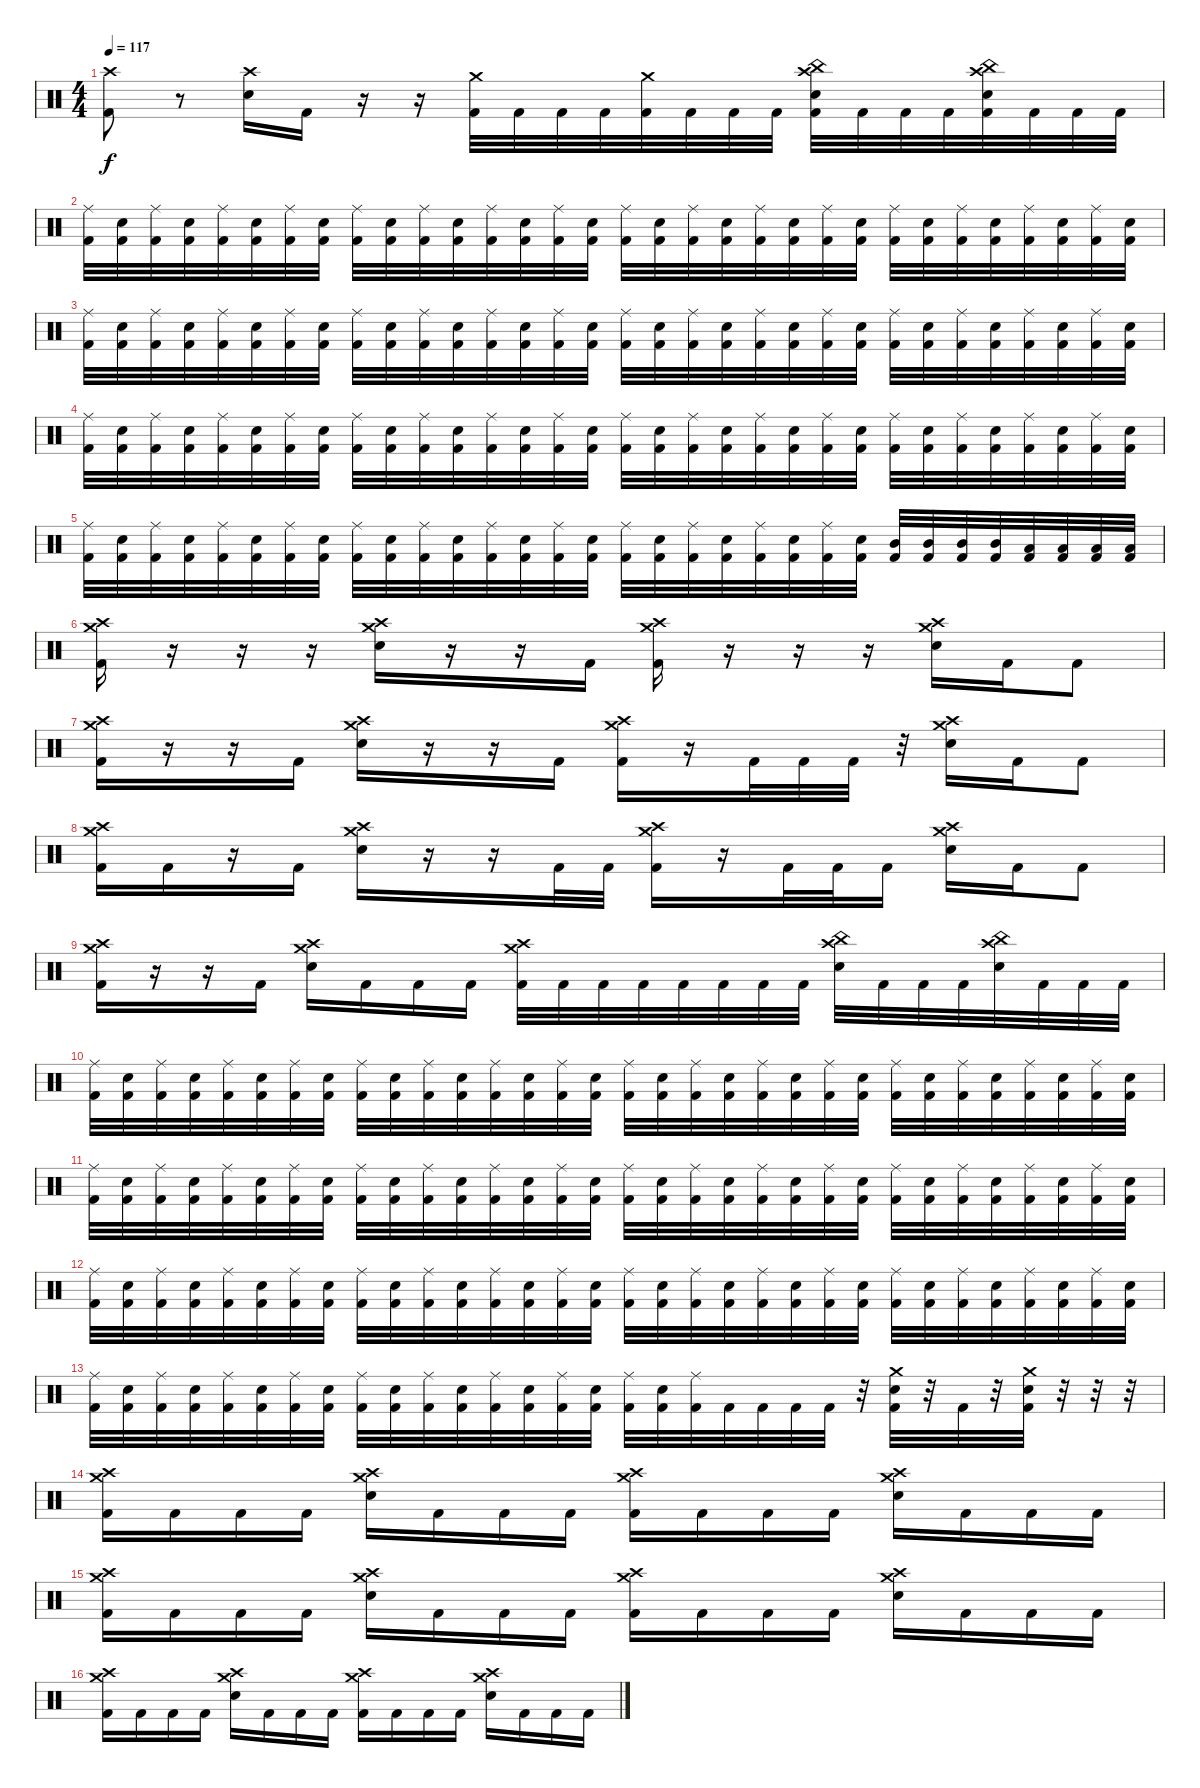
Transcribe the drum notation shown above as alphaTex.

\track "" {instrument percussion}
\staff {score}
\articulation defaults
\ts (4 4)
\tempo 117
\clef neutral
\ks c
("Kick (hit) 2" "Crash high (hit)").8{dy f} r.8 ("Electric Snare (hit)" "Crash high (hit)").16 "Kick (hit) 2".16 r.16 r.16 ("Kick (hit) 2" "Crash medium (hit)").32 "Kick (hit) 2".32 "Kick (hit) 2".32 "Kick (hit) 2".32 ("Kick (hit) 2" "Crash medium (hit)").32 "Kick (hit) 2".32 "Kick (hit) 2".32 "Kick (hit) 2".32 ("Kick (hit) 2" "Electric Snare (hit)" "Crash high (hit)" "China (hit)").32 "Kick (hit) 2".32 "Kick (hit) 2".32 "Kick (hit) 2".32 ("Kick (hit) 2" "Electric Snare (hit)" "Crash high (hit)" "China (hit)").32 "Kick (hit) 2".32 "Kick (hit) 2".32 "Kick (hit) 2".32 |
("Ride (middle)" "Kick (hit) 2").32 ("Electric Snare (hit)" "Kick (hit) 2").32 ("Ride (middle)" "Kick (hit) 2").32 ("Electric Snare (hit)" "Kick (hit) 2").32 ("Ride (middle)" "Kick (hit) 2").32 ("Electric Snare (hit)" "Kick (hit) 2").32 ("Ride (middle)" "Kick (hit) 2").32 ("Electric Snare (hit)" "Kick (hit) 2").32 ("Ride (middle)" "Kick (hit) 2").32 ("Electric Snare (hit)" "Kick (hit) 2").32 ("Ride (middle)" "Kick (hit) 2").32 ("Electric Snare (hit)" "Kick (hit) 2").32 ("Ride (middle)" "Kick (hit) 2").32 ("Electric Snare (hit)" "Kick (hit) 2").32 ("Ride (middle)" "Kick (hit) 2").32 ("Electric Snare (hit)" "Kick (hit) 2").32 ("Ride (middle)" "Kick (hit) 2").32 ("Electric Snare (hit)" "Kick (hit) 2").32 ("Ride (middle)" "Kick (hit) 2").32 ("Electric Snare (hit)" "Kick (hit) 2").32 ("Ride (middle)" "Kick (hit) 2").32 ("Electric Snare (hit)" "Kick (hit) 2").32 ("Ride (middle)" "Kick (hit) 2").32 ("Electric Snare (hit)" "Kick (hit) 2").32 ("Ride (middle)" "Kick (hit) 2").32 ("Electric Snare (hit)" "Kick (hit) 2").32 ("Ride (middle)" "Kick (hit) 2").32 ("Electric Snare (hit)" "Kick (hit) 2").32 ("Ride (middle)" "Kick (hit) 2").32 ("Electric Snare (hit)" "Kick (hit) 2").32 ("Ride (middle)" "Kick (hit) 2").32 ("Electric Snare (hit)" "Kick (hit) 2").32 |
("Ride (middle)" "Kick (hit) 2").32 ("Electric Snare (hit)" "Kick (hit) 2").32 ("Ride (middle)" "Kick (hit) 2").32 ("Electric Snare (hit)" "Kick (hit) 2").32 ("Ride (middle)" "Kick (hit) 2").32 ("Electric Snare (hit)" "Kick (hit) 2").32 ("Ride (middle)" "Kick (hit) 2").32 ("Electric Snare (hit)" "Kick (hit) 2").32 ("Ride (middle)" "Kick (hit) 2").32 ("Electric Snare (hit)" "Kick (hit) 2").32 ("Ride (middle)" "Kick (hit) 2").32 ("Electric Snare (hit)" "Kick (hit) 2").32 ("Ride (middle)" "Kick (hit) 2").32 ("Electric Snare (hit)" "Kick (hit) 2").32 ("Ride (middle)" "Kick (hit) 2").32 ("Electric Snare (hit)" "Kick (hit) 2").32 ("Ride (middle)" "Kick (hit) 2").32 ("Electric Snare (hit)" "Kick (hit) 2").32 ("Ride (middle)" "Kick (hit) 2").32 ("Electric Snare (hit)" "Kick (hit) 2").32 ("Ride (middle)" "Kick (hit) 2").32 ("Electric Snare (hit)" "Kick (hit) 2").32 ("Ride (middle)" "Kick (hit) 2").32 ("Electric Snare (hit)" "Kick (hit) 2").32 ("Ride (middle)" "Kick (hit) 2").32 ("Electric Snare (hit)" "Kick (hit) 2").32 ("Ride (middle)" "Kick (hit) 2").32 ("Electric Snare (hit)" "Kick (hit) 2").32 ("Ride (middle)" "Kick (hit) 2").32 ("Electric Snare (hit)" "Kick (hit) 2").32 ("Ride (middle)" "Kick (hit) 2").32 ("Electric Snare (hit)" "Kick (hit) 2").32 |
("Ride (middle)" "Kick (hit) 2").32 ("Electric Snare (hit)" "Kick (hit) 2").32 ("Ride (middle)" "Kick (hit) 2").32 ("Electric Snare (hit)" "Kick (hit) 2").32 ("Ride (middle)" "Kick (hit) 2").32 ("Electric Snare (hit)" "Kick (hit) 2").32 ("Ride (middle)" "Kick (hit) 2").32 ("Electric Snare (hit)" "Kick (hit) 2").32 ("Ride (middle)" "Kick (hit) 2").32 ("Electric Snare (hit)" "Kick (hit) 2").32 ("Ride (middle)" "Kick (hit) 2").32 ("Electric Snare (hit)" "Kick (hit) 2").32 ("Ride (middle)" "Kick (hit) 2").32 ("Electric Snare (hit)" "Kick (hit) 2").32 ("Ride (middle)" "Kick (hit) 2").32 ("Electric Snare (hit)" "Kick (hit) 2").32 ("Ride (middle)" "Kick (hit) 2").32 ("Electric Snare (hit)" "Kick (hit) 2").32 ("Ride (middle)" "Kick (hit) 2").32 ("Electric Snare (hit)" "Kick (hit) 2").32 ("Ride (middle)" "Kick (hit) 2").32 ("Electric Snare (hit)" "Kick (hit) 2").32 ("Ride (middle)" "Kick (hit) 2").32 ("Electric Snare (hit)" "Kick (hit) 2").32 ("Ride (middle)" "Kick (hit) 2").32 ("Electric Snare (hit)" "Kick (hit) 2").32 ("Ride (middle)" "Kick (hit) 2").32 ("Electric Snare (hit)" "Kick (hit) 2").32 ("Ride (middle)" "Kick (hit) 2").32 ("Electric Snare (hit)" "Kick (hit) 2").32 ("Ride (middle)" "Kick (hit) 2").32 ("Electric Snare (hit)" "Kick (hit) 2").32 |
("Ride (middle)" "Kick (hit) 2").32 ("Electric Snare (hit)" "Kick (hit) 2").32 ("Ride (middle)" "Kick (hit) 2").32 ("Electric Snare (hit)" "Kick (hit) 2").32 ("Ride (middle)" "Kick (hit) 2").32 ("Electric Snare (hit)" "Kick (hit) 2").32 ("Ride (middle)" "Kick (hit) 2").32 ("Electric Snare (hit)" "Kick (hit) 2").32 ("Ride (middle)" "Kick (hit) 2").32 ("Electric Snare (hit)" "Kick (hit) 2").32 ("Ride (middle)" "Kick (hit) 2").32 ("Electric Snare (hit)" "Kick (hit) 2").32 ("Ride (middle)" "Kick (hit) 2").32 ("Electric Snare (hit)" "Kick (hit) 2").32 ("Ride (middle)" "Kick (hit) 2").32 ("Electric Snare (hit)" "Kick (hit) 2").32 ("Ride (middle)" "Kick (hit) 2").32 ("Electric Snare (hit)" "Kick (hit) 2").32 ("Ride (middle)" "Kick (hit) 2").32 ("Electric Snare (hit)" "Kick (hit) 2").32 ("Ride (middle)" "Kick (hit) 2").32 ("Electric Snare (hit)" "Kick (hit) 2").32 ("Ride (middle)" "Kick (hit) 2").32 ("Electric Snare (hit)" "Kick (hit) 2").32 ("Mid Tom (hit)" "Kick (hit) 2").32 ("Mid Tom (hit)" "Kick (hit) 2").32 ("Mid Tom (hit)" "Kick (hit) 2").32 ("Mid Tom (hit)" "Kick (hit) 2").32 ("Low Tom (hit)" "Kick (hit) 2").32 ("Low Tom (hit)" "Kick (hit) 2").32 ("Low Tom (hit)" "Kick (hit) 2").32 ("Low Tom (hit)" "Kick (hit) 2").32 |
("Kick (hit) 2" "Crash high (hit)" "Crash medium (hit)").16 r.16 r.16 r.16 ("Electric Snare (hit)" "Crash high (hit)" "Crash medium (hit)").16 r.16 r.16 "Kick (hit) 2".16 ("Kick (hit) 2" "Crash high (hit)" "Crash medium (hit)").16 r.16 r.16 r.16 ("Electric Snare (hit)" "Crash high (hit)" "Crash medium (hit)").16 "Kick (hit) 2".16 "Kick (hit) 2".8 |
("Kick (hit) 2" "Crash high (hit)" "Crash medium (hit)").16 r.16 r.16 "Kick (hit) 2".16 ("Electric Snare (hit)" "Crash high (hit)" "Crash medium (hit)").16 r.16 r.16 "Kick (hit) 2".16 ("Kick (hit) 2" "Crash high (hit)" "Crash medium (hit)").16 r.16 "Kick (hit) 2".32 "Kick (hit) 2".32 "Kick (hit) 2".32 r.32 ("Electric Snare (hit)" "Crash high (hit)" "Crash medium (hit)").16 "Kick (hit) 2".16 "Kick (hit) 2".8 |
("Kick (hit) 2" "Crash high (hit)" "Crash medium (hit)").16 "Kick (hit) 2".16 r.16 "Kick (hit) 2".16 ("Electric Snare (hit)" "Crash high (hit)" "Crash medium (hit)").16 r.16 r.16 "Kick (hit) 2".32 "Kick (hit) 2".32 ("Kick (hit) 2" "Crash high (hit)" "Crash medium (hit)").16 r.16 "Kick (hit) 2".32 "Kick (hit) 2".32 "Kick (hit) 2".16 ("Electric Snare (hit)" "Crash high (hit)" "Crash medium (hit)").16 "Kick (hit) 2".16 "Kick (hit) 2".8 |
("Kick (hit) 2" "Crash high (hit)" "Crash medium (hit)").16 r.16 r.16 "Kick (hit) 2".16 ("Electric Snare (hit)" "Crash high (hit)" "Crash medium (hit)").16 "Kick (hit) 2".16 "Kick (hit) 2".16 "Kick (hit) 2".16 ("Kick (hit) 2" "Crash high (hit)" "Crash medium (hit)").32 "Kick (hit) 2".32 "Kick (hit) 2".32 "Kick (hit) 2".32 "Kick (hit) 2".32 "Kick (hit) 2".32 "Kick (hit) 2".32 "Kick (hit) 2".32 ("Electric Snare (hit)" "Crash high (hit)" "China (hit)").32 "Kick (hit) 2".32 "Kick (hit) 2".32 "Kick (hit) 2".32 ("Electric Snare (hit)" "Crash high (hit)" "China (hit)").32 "Kick (hit) 2".32 "Kick (hit) 2".32 "Kick (hit) 2".32 |
("Ride (middle)" "Kick (hit) 2").32 ("Electric Snare (hit)" "Kick (hit) 2").32 ("Ride (middle)" "Kick (hit) 2").32 ("Electric Snare (hit)" "Kick (hit) 2").32 ("Ride (middle)" "Kick (hit) 2").32 ("Electric Snare (hit)" "Kick (hit) 2").32 ("Ride (middle)" "Kick (hit) 2").32 ("Electric Snare (hit)" "Kick (hit) 2").32 ("Ride (middle)" "Kick (hit) 2").32 ("Electric Snare (hit)" "Kick (hit) 2").32 ("Ride (middle)" "Kick (hit) 2").32 ("Electric Snare (hit)" "Kick (hit) 2").32 ("Ride (middle)" "Kick (hit) 2").32 ("Electric Snare (hit)" "Kick (hit) 2").32 ("Ride (middle)" "Kick (hit) 2").32 ("Electric Snare (hit)" "Kick (hit) 2").32 ("Ride (middle)" "Kick (hit) 2").32 ("Electric Snare (hit)" "Kick (hit) 2").32 ("Ride (middle)" "Kick (hit) 2").32 ("Electric Snare (hit)" "Kick (hit) 2").32 ("Ride (middle)" "Kick (hit) 2").32 ("Electric Snare (hit)" "Kick (hit) 2").32 ("Ride (middle)" "Kick (hit) 2").32 ("Electric Snare (hit)" "Kick (hit) 2").32 ("Ride (middle)" "Kick (hit) 2").32 ("Electric Snare (hit)" "Kick (hit) 2").32 ("Ride (middle)" "Kick (hit) 2").32 ("Electric Snare (hit)" "Kick (hit) 2").32 ("Ride (middle)" "Kick (hit) 2").32 ("Electric Snare (hit)" "Kick (hit) 2").32 ("Ride (middle)" "Kick (hit) 2").32 ("Electric Snare (hit)" "Kick (hit) 2").32 |
("Ride (middle)" "Kick (hit) 2").32 ("Electric Snare (hit)" "Kick (hit) 2").32 ("Ride (middle)" "Kick (hit) 2").32 ("Electric Snare (hit)" "Kick (hit) 2").32 ("Ride (middle)" "Kick (hit) 2").32 ("Electric Snare (hit)" "Kick (hit) 2").32 ("Ride (middle)" "Kick (hit) 2").32 ("Electric Snare (hit)" "Kick (hit) 2").32 ("Ride (middle)" "Kick (hit) 2").32 ("Electric Snare (hit)" "Kick (hit) 2").32 ("Ride (middle)" "Kick (hit) 2").32 ("Electric Snare (hit)" "Kick (hit) 2").32 ("Ride (middle)" "Kick (hit) 2").32 ("Electric Snare (hit)" "Kick (hit) 2").32 ("Ride (middle)" "Kick (hit) 2").32 ("Electric Snare (hit)" "Kick (hit) 2").32 ("Ride (middle)" "Kick (hit) 2").32 ("Electric Snare (hit)" "Kick (hit) 2").32 ("Ride (middle)" "Kick (hit) 2").32 ("Electric Snare (hit)" "Kick (hit) 2").32 ("Ride (middle)" "Kick (hit) 2").32 ("Electric Snare (hit)" "Kick (hit) 2").32 ("Ride (middle)" "Kick (hit) 2").32 ("Electric Snare (hit)" "Kick (hit) 2").32 ("Ride (middle)" "Kick (hit) 2").32 ("Electric Snare (hit)" "Kick (hit) 2").32 ("Ride (middle)" "Kick (hit) 2").32 ("Electric Snare (hit)" "Kick (hit) 2").32 ("Ride (middle)" "Kick (hit) 2").32 ("Electric Snare (hit)" "Kick (hit) 2").32 ("Ride (middle)" "Kick (hit) 2").32 ("Electric Snare (hit)" "Kick (hit) 2").32 |
("Ride (middle)" "Kick (hit) 2").32 ("Electric Snare (hit)" "Kick (hit) 2").32 ("Ride (middle)" "Kick (hit) 2").32 ("Electric Snare (hit)" "Kick (hit) 2").32 ("Ride (middle)" "Kick (hit) 2").32 ("Electric Snare (hit)" "Kick (hit) 2").32 ("Ride (middle)" "Kick (hit) 2").32 ("Electric Snare (hit)" "Kick (hit) 2").32 ("Ride (middle)" "Kick (hit) 2").32 ("Electric Snare (hit)" "Kick (hit) 2").32 ("Ride (middle)" "Kick (hit) 2").32 ("Electric Snare (hit)" "Kick (hit) 2").32 ("Ride (middle)" "Kick (hit) 2").32 ("Electric Snare (hit)" "Kick (hit) 2").32 ("Ride (middle)" "Kick (hit) 2").32 ("Electric Snare (hit)" "Kick (hit) 2").32 ("Ride (middle)" "Kick (hit) 2").32 ("Electric Snare (hit)" "Kick (hit) 2").32 ("Ride (middle)" "Kick (hit) 2").32 ("Electric Snare (hit)" "Kick (hit) 2").32 ("Ride (middle)" "Kick (hit) 2").32 ("Electric Snare (hit)" "Kick (hit) 2").32 ("Ride (middle)" "Kick (hit) 2").32 ("Electric Snare (hit)" "Kick (hit) 2").32 ("Ride (middle)" "Kick (hit) 2").32 ("Electric Snare (hit)" "Kick (hit) 2").32 ("Ride (middle)" "Kick (hit) 2").32 ("Electric Snare (hit)" "Kick (hit) 2").32 ("Ride (middle)" "Kick (hit) 2").32 ("Electric Snare (hit)" "Kick (hit) 2").32 ("Ride (middle)" "Kick (hit) 2").32 ("Electric Snare (hit)" "Kick (hit) 2").32 |
("Ride (middle)" "Kick (hit) 2").32 ("Electric Snare (hit)" "Kick (hit) 2").32 ("Ride (middle)" "Kick (hit) 2").32 ("Electric Snare (hit)" "Kick (hit) 2").32 ("Ride (middle)" "Kick (hit) 2").32 ("Electric Snare (hit)" "Kick (hit) 2").32 ("Ride (middle)" "Kick (hit) 2").32 ("Electric Snare (hit)" "Kick (hit) 2").32 ("Ride (middle)" "Kick (hit) 2").32 ("Electric Snare (hit)" "Kick (hit) 2").32 ("Ride (middle)" "Kick (hit) 2").32 ("Electric Snare (hit)" "Kick (hit) 2").32 ("Ride (middle)" "Kick (hit) 2").32 ("Electric Snare (hit)" "Kick (hit) 2").32 ("Ride (middle)" "Kick (hit) 2").32 ("Electric Snare (hit)" "Kick (hit) 2").32 ("Ride (middle)" "Kick (hit) 2").32 ("Electric Snare (hit)" "Kick (hit) 2").32 ("Ride (middle)" "Kick (hit) 2").32 "Kick (hit) 2".32 "Kick (hit) 2".32 "Kick (hit) 2".32 "Kick (hit) 2".32 r.32 ("Electric Snare (hit)" "Crash medium (hit)" "Kick (hit) 2").32 r.32 "Kick (hit) 2".32 r.32 ("Electric Snare (hit)" "Crash medium (hit)" "Kick (hit) 2").32 r.32 r.32 r.32 |
("Kick (hit) 2" "Crash high (hit)" "Crash medium (hit)").16 "Kick (hit) 2".16 "Kick (hit) 2".16 "Kick (hit) 2".16 ("Electric Snare (hit)" "Crash high (hit)" "Crash medium (hit)").16 "Kick (hit) 2".16 "Kick (hit) 2".16 "Kick (hit) 2".16 ("Kick (hit) 2" "Crash high (hit)" "Crash medium (hit)").16 "Kick (hit) 2".16 "Kick (hit) 2".16 "Kick (hit) 2".16 ("Electric Snare (hit)" "Crash high (hit)" "Crash medium (hit)").16 "Kick (hit) 2".16 "Kick (hit) 2".16 "Kick (hit) 2".16 |
("Kick (hit) 2" "Crash high (hit)" "Crash medium (hit)").16 "Kick (hit) 2".16 "Kick (hit) 2".16 "Kick (hit) 2".16 ("Electric Snare (hit)" "Crash high (hit)" "Crash medium (hit)").16 "Kick (hit) 2".16 "Kick (hit) 2".16 "Kick (hit) 2".16 ("Kick (hit) 2" "Crash high (hit)" "Crash medium (hit)").16 "Kick (hit) 2".16 "Kick (hit) 2".16 "Kick (hit) 2".16 ("Electric Snare (hit)" "Crash high (hit)" "Crash medium (hit)").16 "Kick (hit) 2".16 "Kick (hit) 2".16 "Kick (hit) 2".16 |
("Kick (hit) 2" "Crash high (hit)" "Crash medium (hit)").16 "Kick (hit) 2".16 "Kick (hit) 2".16 "Kick (hit) 2".16 ("Electric Snare (hit)" "Crash high (hit)" "Crash medium (hit)").16 "Kick (hit) 2".16 "Kick (hit) 2".16 "Kick (hit) 2".16 ("Kick (hit) 2" "Crash high (hit)" "Crash medium (hit)").16 "Kick (hit) 2".16 "Kick (hit) 2".16 "Kick (hit) 2".16 ("Electric Snare (hit)" "Crash high (hit)" "Crash medium (hit)").16 "Kick (hit) 2".16 "Kick (hit) 2".16 "Kick (hit) 2".16
